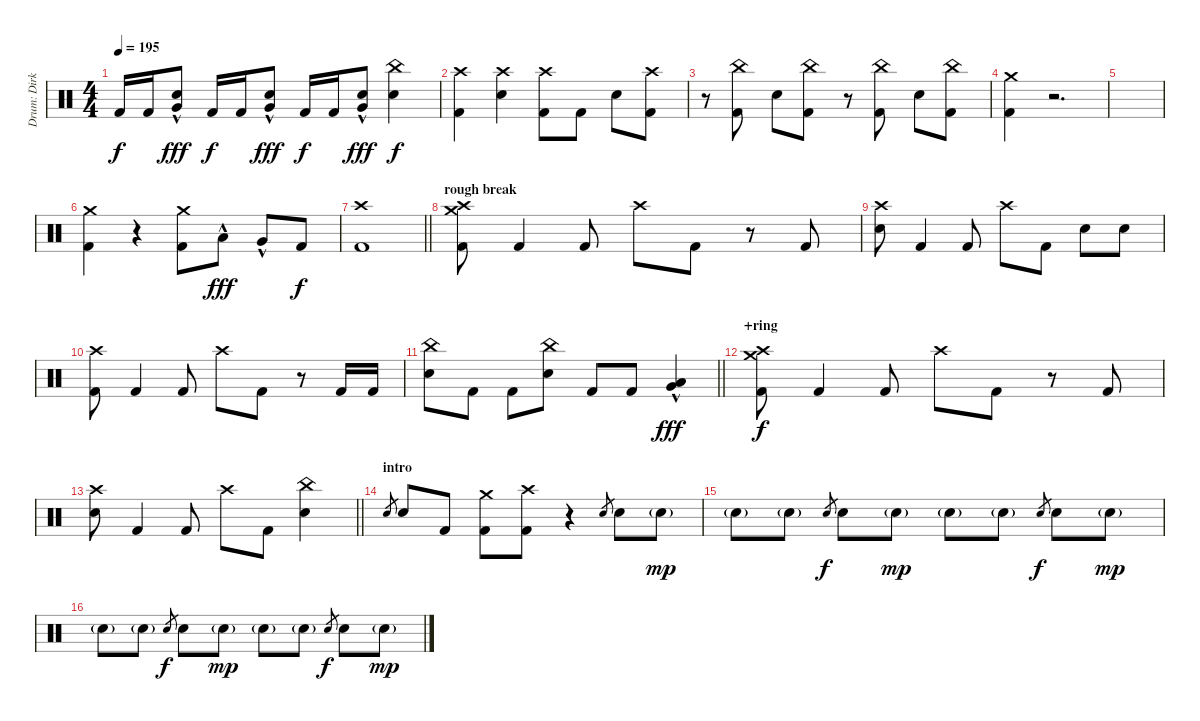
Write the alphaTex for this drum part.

\track ("Drum: Dirk" "Drum: Dirk") {instrument percussion}
\staff {score}
\articulation defaults
\ts (4 4)
\tempo 195
\clef neutral
\ks c "Kick (hit) 2".16{dy f} "Kick (hit) 2".16
("Electric Snare (hit)" "Very Low Tom (hit)"{hac}).8{dy fff} "Kick (hit) 2".16{dy f} "Kick (hit) 2".16 ("Electric Snare (hit)" "Very Low Tom (hit)"{hac}).8{dy fff} "Kick (hit) 2".16{dy f} "Kick (hit) 2".16 ("Electric Snare (hit)" "Very Low Tom (hit)"{hac}).8{dy fff} ("China (hit)" "Electric Snare (hit)").4{dy f} |
("Crash high (hit)" "Kick (hit) 2").4 ("Crash high (hit)" "Electric Snare (hit)").4 ("Crash high (hit)" "Kick (hit) 2").8 "Kick (hit) 2".8 "Electric Snare (hit)".8 ("Crash high (hit)" "Kick (hit) 2").8 |
r.8 ("China (hit)" "Kick (hit) 2").8 "Electric Snare (hit)".8 ("China (hit)" "Kick (hit) 2").8 r.8 ("China (hit)" "Kick (hit) 2").8 "Electric Snare (hit)".8 ("China (hit)" "Kick (hit) 2").8 |
("Crash medium (hit)" "Kick (hit) 2").4 r.2{d} |
|
("Crash medium (hit)" "Kick (hit) 2").4 r.4{volume 0} ("Crash medium (hit)" "Kick (hit) 2").8{volume 13} "Low Tom (hit)"{hac}.8{dy fff} "Very Low Tom (hit)"{hac}.8 "Kick (hit) 2".8{dy f} |
\barLineRight lightlight
("Crash high (hit)" "Kick (hit) 2").1 |
\section ("" "rough break")
("Crash high (hit)" "Crash medium (hit)" "Kick (hit) 2").8 "Kick (hit) 2".4 "Kick (hit) 2".8 "Crash high (hit)".8 "Kick (hit) 2".8 r.8 "Kick (hit) 2".8 |
("Crash high (hit)" "Electric Snare (hit)").8 "Kick (hit) 2".4 "Kick (hit) 2".8 "Crash high (hit)".8 "Kick (hit) 2".8 "Electric Snare (hit)".8 "Electric Snare (hit)".8 |
("Crash high (hit)" "Kick (hit) 2").8 "Kick (hit) 2".4 "Kick (hit) 2".8 "Crash high (hit)".8 "Kick (hit) 2".8 r.8 "Kick (hit) 2".16 "Kick (hit) 2".16 |
\barLineRight lightlight
("China (hit)" "Electric Snare (hit)").8 "Kick (hit) 2".8 "Kick (hit) 2".8 ("China (hit)" "Electric Snare (hit)").8 "Kick (hit) 2".8 "Kick (hit) 2".8 ("Very Low Tom (hit)"{hac} "Low Floor Tom (hit)"{hac}).4{dy fff} |
\section ("" "+ring")
("Crash high (hit)" "Crash medium (hit)" "Kick (hit) 2").8{dy f} "Kick (hit) 2".4 "Kick (hit) 2".8 "Crash high (hit)".8 "Kick (hit) 2".8 r.8 "Kick (hit) 2".8 |
\barLineRight lightlight
("Crash high (hit)" "Electric Snare (hit)").8 "Kick (hit) 2".4 "Kick (hit) 2".8 "Crash high (hit)".8 "Kick (hit) 2".8 ("China (hit)" "Electric Snare (hit)").4 |
\section ("" "intro")
"Electric Snare (hit)".8{gr} "Electric Snare (hit)".8 "Kick (hit) 2".8 ("Crash medium (hit)" "Kick (hit) 2").8 ("Crash high (hit)" "Kick (hit) 2").8 r.4 "Electric Snare (hit)".8{gr} "Electric Snare (hit)".8 "Electric Snare (hit)"{g}.8{dy mp} |
"Electric Snare (hit)"{g}.8 "Electric Snare (hit)"{g}.8 "Electric Snare (hit)".8{gr dy f} "Electric Snare (hit)".8 "Electric Snare (hit)"{g}.8{dy mp} "Electric Snare (hit)"{g}.8 "Electric Snare (hit)"{g}.8 "Electric Snare (hit)".8{gr dy f} "Electric Snare (hit)".8 "Electric Snare (hit)"{g}.8{dy mp} |
"Electric Snare (hit)"{g}.8 "Electric Snare (hit)"{g}.8 "Electric Snare (hit)".8{gr dy f} "Electric Snare (hit)".8 "Electric Snare (hit)"{g}.8{dy mp} "Electric Snare (hit)"{g}.8 "Electric Snare (hit)"{g}.8 "Electric Snare (hit)".8{gr dy f} "Electric Snare (hit)".8 "Electric Snare (hit)"{g}.8{dy mp}
